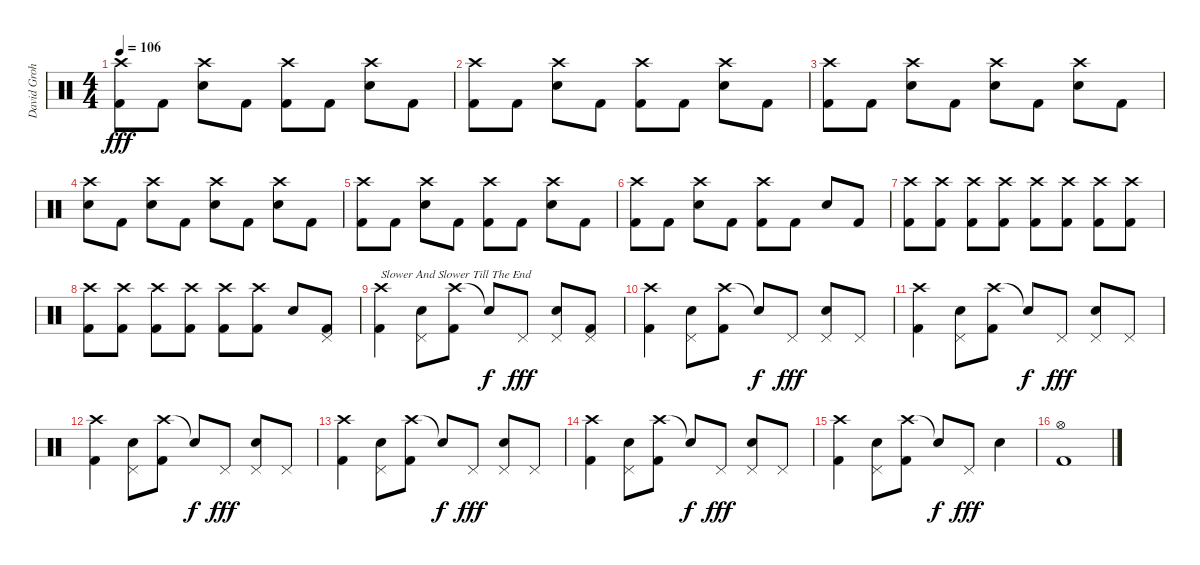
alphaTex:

\track ("David Grohl 2 Crash Style !!" "David Groh") {instrument percussion}
\staff {score}
\articulation defaults
\ts (4 4)
\tempo 106
\clef neutral
\ks c
("Crash high (hit)" "Kick (hit) 2").8{dy fff} "Kick (hit) 2".8 ("Crash high (hit)" "Snare (hit) 2").8 "Kick (hit) 2".8 ("Crash high (hit)" "Kick (hit) 2").8 "Kick (hit) 2".8 ("Crash high (hit)" "Snare (hit) 2").8 "Kick (hit) 2".8 |
("Crash high (hit)" "Kick (hit) 2").8 "Kick (hit) 2".8 ("Crash high (hit)" "Snare (hit) 2").8 "Kick (hit) 2".8 ("Crash high (hit)" "Kick (hit) 2").8 "Kick (hit) 2".8 ("Crash high (hit)" "Snare (hit) 2").8 "Kick (hit) 2".8 |
("Crash high (hit)" "Kick (hit) 2").8 "Kick (hit) 2".8 ("Crash high (hit)" "Snare (hit) 2").8 "Kick (hit) 2".8 ("Crash high (hit)" "Snare (hit) 2").8 "Kick (hit) 2".8 ("Crash high (hit)" "Snare (hit) 2").8 "Kick (hit) 2".8 |
("Crash high (hit)" "Snare (hit) 2").8 "Kick (hit) 2".8 ("Crash high (hit)" "Snare (hit) 2").8 "Kick (hit) 2".8 ("Crash high (hit)" "Snare (hit) 2").8 "Kick (hit) 2".8 ("Crash high (hit)" "Snare (hit) 2").8 "Kick (hit) 2".8 |
("Crash high (hit)" "Kick (hit) 2").8 "Kick (hit) 2".8 ("Crash high (hit)" "Snare (hit) 2").8 "Kick (hit) 2".8 ("Crash high (hit)" "Kick (hit) 2").8 "Kick (hit) 2".8 ("Crash high (hit)" "Snare (hit) 2").8 "Kick (hit) 2".8 |
("Crash high (hit)" "Kick (hit) 2").8 "Kick (hit) 2".8 ("Crash high (hit)" "Snare (hit) 2").8 "Kick (hit) 2".8 ("Crash high (hit)" "Kick (hit) 2").8 "Kick (hit) 2".8 "Snare (hit) 2".8 "Kick (hit) 2".8 |
("Crash high (hit)" "Kick (hit) 2").8 ("Crash high (hit)" "Kick (hit) 2").8 ("Crash high (hit)" "Kick (hit) 2").8 ("Crash high (hit)" "Kick (hit) 2").8 ("Crash high (hit)" "Kick (hit) 2").8 ("Crash high (hit)" "Kick (hit) 2").8 ("Crash high (hit)" "Kick (hit) 2").8 ("Crash high (hit)" "Kick (hit) 2").8 |
("Crash high (hit)" "Kick (hit) 2").8 ("Crash high (hit)" "Kick (hit) 2").8 ("Crash high (hit)" "Kick (hit) 2").8 ("Crash high (hit)" "Kick (hit) 2").8 ("Crash high (hit)" "Kick (hit) 2").8 ("Crash high (hit)" "Kick (hit) 2").8 "Snare (hit) 2".8 ("Pedal Hi-Hat (hit)" "Kick (hit) 2").8 |
("Crash high (hit)" "Kick (hit) 2").4{txt "Slower And Slower Till The End"} ("Pedal Hi-Hat (hit)" "Snare (hit) 2").8 ("Crash high (hit)" "Kick (hit) 2").8 "Snare (hit)"{t}.8{dy f} "Pedal Hi-Hat (hit)".8{dy fff} ("Pedal Hi-Hat (hit)" "Snare (hit) 2").8 ("Pedal Hi-Hat (hit)" "Kick (hit) 2").8 |
("Crash high (hit)" "Kick (hit) 2").4 ("Pedal Hi-Hat (hit)" "Snare (hit) 2").8 ("Crash high (hit)" "Kick (hit) 2").8 "Snare (hit)"{t}.8{dy f} "Pedal Hi-Hat (hit)".8{dy fff} ("Pedal Hi-Hat (hit)" "Snare (hit) 2").8 "Pedal Hi-Hat (hit)".8 |
("Crash high (hit)" "Kick (hit) 2").4 ("Pedal Hi-Hat (hit)" "Snare (hit) 2").8 ("Crash high (hit)" "Kick (hit) 2").8 "Snare (hit)"{t}.8{dy f} "Pedal Hi-Hat (hit)".8{dy fff} ("Pedal Hi-Hat (hit)" "Snare (hit) 2").8 "Pedal Hi-Hat (hit)".8 |
("Crash high (hit)" "Kick (hit) 2").4 ("Pedal Hi-Hat (hit)" "Snare (hit) 2").8 ("Crash high (hit)" "Kick (hit) 2").8 "Snare (hit)"{t}.8{dy f} "Pedal Hi-Hat (hit)".8{dy fff} ("Pedal Hi-Hat (hit)" "Snare (hit) 2").8 "Pedal Hi-Hat (hit)".8 |
("Crash high (hit)" "Kick (hit) 2").4 ("Pedal Hi-Hat (hit)" "Snare (hit) 2").8 ("Crash high (hit)" "Kick (hit) 2").8 "Snare (hit)"{t}.8{dy f} "Pedal Hi-Hat (hit)".8{dy fff} ("Pedal Hi-Hat (hit)" "Snare (hit) 2").8 "Pedal Hi-Hat (hit)".8 |
("Crash high (hit)" "Kick (hit) 2").4 ("Pedal Hi-Hat (hit)" "Snare (hit) 2").8 ("Crash high (hit)" "Kick (hit) 2").8 "Snare (hit)"{t}.8{dy f} "Pedal Hi-Hat (hit)".8{dy fff} ("Pedal Hi-Hat (hit)" "Snare (hit) 2").8 "Pedal Hi-Hat (hit)".8 |
("Crash high (hit)" "Kick (hit) 2").4 ("Pedal Hi-Hat (hit)" "Snare (hit) 2").8 ("Crash high (hit)" "Kick (hit) 2").8 "Snare (hit)"{t}.8{dy f} "Pedal Hi-Hat (hit)".8{dy fff} "Snare (hit) 2".4 |
("Hi-Hat (open)" "Kick (hit) 2").1
